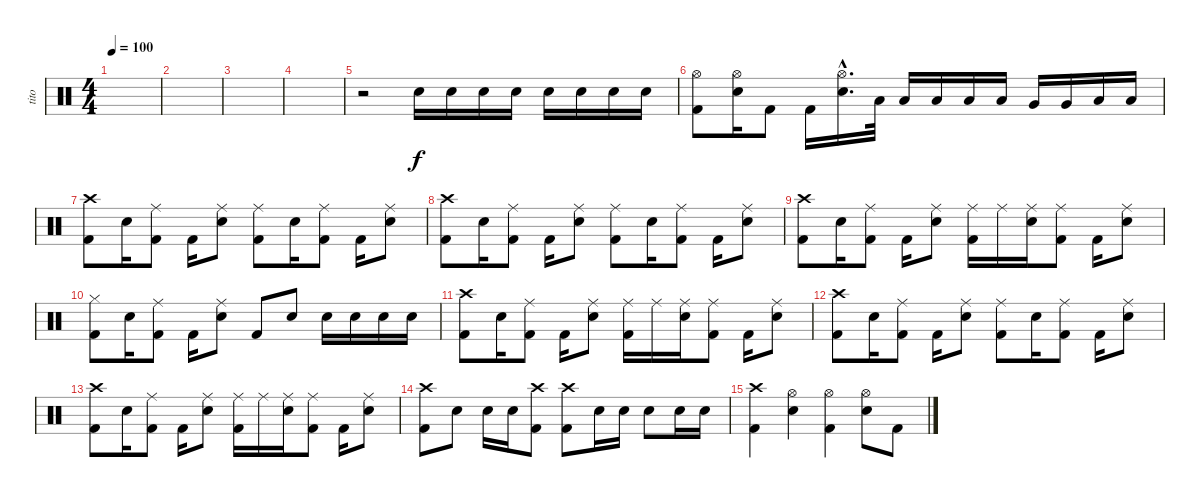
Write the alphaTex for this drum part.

\track ("tito" "tito") {instrument percussion}
\staff {score}
\articulation defaults
\ts (4 4)
\tempo 100
\clef neutral
\ks c
|
|
|
|
r.2 "Snare (hit) 2".16 "Snare (hit) 2".16 "Snare (hit) 2".16 "Snare (hit) 2".16 "Snare (hit) 2".16 "Snare (hit) 2".16 "Snare (hit) 2".16 "Snare (hit) 2".16 |
("Hi-Hat (open)" "Kick (hit) 2").8 ("Hi-Hat (open)" "Snare (hit) 2").16 "Kick (hit) 2".8 "Kick (hit) 2".16 ("Hi-Hat (open)"{hac} "Snare (hit) 2"{hac}).16{d} "Low Tom (hit)".32 "Low Tom (hit)".16 "Low Tom (hit)".16 "Low Tom (hit)".16 "Low Tom (hit)".16 "Very Low Tom (hit)".16 "Very Low Tom (hit)".16 "Low Floor Tom (hit)".16 "Low Floor Tom (hit)".16 |
("Crash high (hit)" "Kick (hit) 2").8 "Snare (hit) 2".16 ("Ride (middle)" "Kick (hit) 2").8 "Kick (hit) 2".16 ("Ride (middle)" "Snare (hit) 2").8 ("Ride (middle)" "Kick (hit) 2").8 "Snare (hit) 2".16 ("Ride (middle)" "Kick (hit) 2").8 "Kick (hit) 2".16 ("Ride (middle)" "Snare (hit) 2").8 |
("Crash high (hit)" "Kick (hit) 2").8 "Snare (hit) 2".16 ("Ride (middle)" "Kick (hit) 2").8 "Kick (hit) 2".16 ("Ride (middle)" "Snare (hit) 2").8 ("Ride (middle)" "Kick (hit) 2").8 "Snare (hit) 2".16 ("Ride (middle)" "Kick (hit) 2").8 "Kick (hit) 2".16 ("Ride (middle)" "Snare (hit) 2").8 |
("Crash high (hit)" "Kick (hit) 2").8 "Snare (hit) 2".16 ("Ride (middle)" "Kick (hit) 2").8 "Kick (hit) 2".16 ("Ride (middle)" "Snare (hit) 2").8 ("Ride (middle)" "Kick (hit) 2").16 "Ride (middle)".16 ("Ride (middle)" "Snare (hit) 2").16 ("Ride (middle)" "Kick (hit) 2").8 "Kick (hit) 2".16 ("Ride (middle)" "Snare (hit) 2").8 |
("Hi-Hat (closed)" "Kick (hit) 2").8 "Snare (hit) 2".16 ("Ride (middle)" "Kick (hit) 2").8 "Kick (hit) 2".16 ("Ride (middle)" "Snare (hit) 2").8 "Kick (hit) 2".8 "Snare (hit) 2".8 "Snare (hit) 2".16 "Snare (hit) 2".16 "Snare (hit) 2".16 "Snare (hit) 2".16 |
("Crash high (hit)" "Kick (hit) 2").8 "Snare (hit) 2".16 ("Ride (middle)" "Kick (hit) 2").8 "Kick (hit) 2".16 ("Ride (middle)" "Snare (hit) 2").8 ("Ride (middle)" "Kick (hit) 2").16 "Ride (middle)".16 ("Ride (middle)" "Snare (hit) 2").16 ("Ride (middle)" "Kick (hit) 2").8 "Kick (hit) 2".16 ("Ride (middle)" "Snare (hit) 2").8 |
("Crash high (hit)" "Kick (hit) 2").8 "Snare (hit) 2".16 ("Ride (middle)" "Kick (hit) 2").8 "Kick (hit) 2".16 ("Ride (middle)" "Snare (hit) 2").8 ("Ride (middle)" "Kick (hit) 2").8 "Snare (hit) 2".16 ("Ride (middle)" "Kick (hit) 2").8 "Kick (hit) 2".16 ("Ride (middle)" "Snare (hit) 2").8 |
("Crash high (hit)" "Kick (hit) 2").8 "Snare (hit) 2".16 ("Ride (middle)" "Kick (hit) 2").8 "Kick (hit) 2".16 ("Ride (middle)" "Snare (hit) 2").8 ("Ride (middle)" "Kick (hit) 2").16 "Ride (middle)".16 ("Ride (middle)" "Snare (hit) 2").16 ("Ride (middle)" "Kick (hit) 2").8 "Kick (hit) 2".16 ("Ride (middle)" "Snare (hit) 2").8 |
("Crash high (hit)" "Kick (hit) 2").8 "Snare (hit) 2".8 "Snare (hit) 2".16 "Snare (hit) 2".16 ("Crash high (hit)" "Kick (hit) 2").8 ("Crash high (hit)" "Kick (hit) 2").8 "Snare (hit) 2".16 "Snare (hit) 2".16 "Snare (hit) 2".8 "Snare (hit) 2".16 "Snare (hit) 2".16 |
("Crash high (hit)" "Kick (hit) 2").4 ("Hi-Hat (open)" "Snare (hit) 2").4 ("Hi-Hat (open)" "Kick (hit) 2").4 ("Hi-Hat (open)" "Snare (hit) 2").8 "Kick (hit) 2".8
